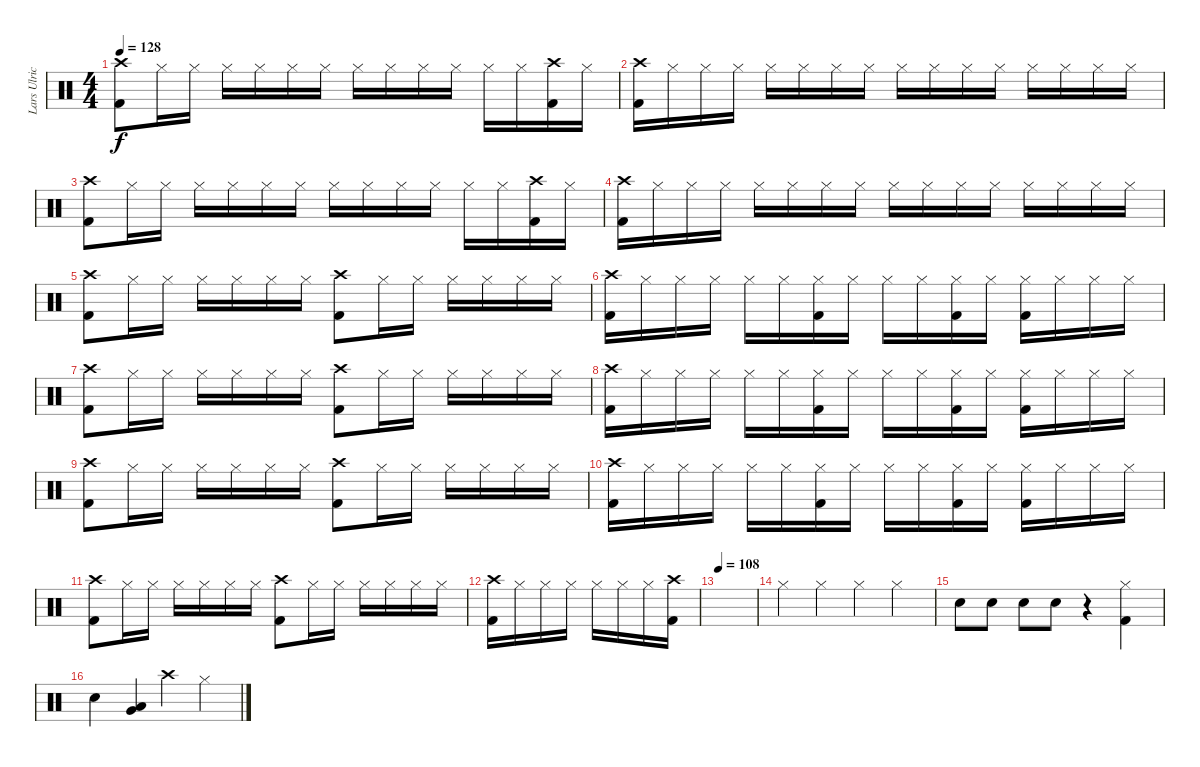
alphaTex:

\track ("Lars Ulrich" "Lars Ulric") {instrument percussion}
\staff {score}
\articulation defaults
\ts (4 4)
\tempo 128
\clef neutral
\ks c
("Crash high (hit)" "Kick (hit) 2").8{dy f} "Hi-Hat (closed)".16 "Hi-Hat (closed)".16 "Hi-Hat (closed)".16 "Hi-Hat (closed)".16 "Hi-Hat (closed)".16 "Hi-Hat (closed)".16 "Hi-Hat (closed)".16 "Hi-Hat (closed)".16 "Hi-Hat (closed)".16 "Hi-Hat (closed)".16 "Hi-Hat (closed)".16 "Hi-Hat (closed)".16 ("Crash high (hit)" "Kick (hit) 2").16 "Hi-Hat (closed)".16 |
("Crash high (hit)" "Kick (hit) 2").16 "Hi-Hat (closed)".16 "Hi-Hat (closed)".16 "Hi-Hat (closed)".16 "Hi-Hat (closed)".16 "Hi-Hat (closed)".16 "Hi-Hat (closed)".16 "Hi-Hat (closed)".16 "Hi-Hat (closed)".16 "Hi-Hat (closed)".16 "Hi-Hat (closed)".16 "Hi-Hat (closed)".16 "Hi-Hat (closed)".16 "Hi-Hat (closed)".16 "Hi-Hat (closed)".16 "Hi-Hat (closed)".16 |
("Crash high (hit)" "Kick (hit) 2").8 "Hi-Hat (closed)".16 "Hi-Hat (closed)".16 "Hi-Hat (closed)".16 "Hi-Hat (closed)".16 "Hi-Hat (closed)".16 "Hi-Hat (closed)".16 "Hi-Hat (closed)".16 "Hi-Hat (closed)".16 "Hi-Hat (closed)".16 "Hi-Hat (closed)".16 "Hi-Hat (closed)".16 "Hi-Hat (closed)".16 ("Crash high (hit)" "Kick (hit) 2").16 "Hi-Hat (closed)".16 |
("Crash high (hit)" "Kick (hit) 2").16 "Hi-Hat (closed)".16 "Hi-Hat (closed)".16 "Hi-Hat (closed)".16 "Hi-Hat (closed)".16 "Hi-Hat (closed)".16 "Hi-Hat (closed)".16 "Hi-Hat (closed)".16 "Hi-Hat (closed)".16 "Hi-Hat (closed)".16 "Hi-Hat (closed)".16 "Hi-Hat (closed)".16 "Hi-Hat (closed)".16 "Hi-Hat (closed)".16 "Hi-Hat (closed)".16 "Hi-Hat (closed)".16 |
("Crash high (hit)" "Kick (hit) 2").8 "Hi-Hat (closed)".16 "Hi-Hat (closed)".16 "Hi-Hat (closed)".16 "Hi-Hat (closed)".16 "Hi-Hat (closed)".16 "Hi-Hat (closed)".16 ("Crash high (hit)" "Kick (hit) 2").8 "Hi-Hat (closed)".16 "Hi-Hat (closed)".16 "Hi-Hat (closed)".16 "Hi-Hat (closed)".16 "Hi-Hat (closed)".16 "Hi-Hat (closed)".16 |
("Crash high (hit)" "Kick (hit) 2").16 "Hi-Hat (closed)".16 "Hi-Hat (closed)".16 "Hi-Hat (closed)".16 "Hi-Hat (closed)".16 "Hi-Hat (closed)".16 ("Hi-Hat (closed)" "Kick (hit) 2").16 "Hi-Hat (closed)".16 "Hi-Hat (closed)".16 "Hi-Hat (closed)".16 ("Hi-Hat (closed)" "Kick (hit) 2").16 "Hi-Hat (closed)".16 ("Hi-Hat (closed)" "Kick (hit) 2").16 "Hi-Hat (closed)".16 "Hi-Hat (closed)".16 "Hi-Hat (closed)".16 |
("Crash high (hit)" "Kick (hit) 2").8 "Hi-Hat (closed)".16 "Hi-Hat (closed)".16 "Hi-Hat (closed)".16 "Hi-Hat (closed)".16 "Hi-Hat (closed)".16 "Hi-Hat (closed)".16 ("Crash high (hit)" "Kick (hit) 2").8 "Hi-Hat (closed)".16 "Hi-Hat (closed)".16 "Hi-Hat (closed)".16 "Hi-Hat (closed)".16 "Hi-Hat (closed)".16 "Hi-Hat (closed)".16 |
("Crash high (hit)" "Kick (hit) 2").16 "Hi-Hat (closed)".16 "Hi-Hat (closed)".16 "Hi-Hat (closed)".16 "Hi-Hat (closed)".16 "Hi-Hat (closed)".16 ("Hi-Hat (closed)" "Kick (hit) 2").16 "Hi-Hat (closed)".16 "Hi-Hat (closed)".16 "Hi-Hat (closed)".16 ("Hi-Hat (closed)" "Kick (hit) 2").16 "Hi-Hat (closed)".16 ("Hi-Hat (closed)" "Kick (hit) 2").16 "Hi-Hat (closed)".16 "Hi-Hat (closed)".16 "Hi-Hat (closed)".16 |
("Crash high (hit)" "Kick (hit) 2").8 "Hi-Hat (closed)".16 "Hi-Hat (closed)".16 "Hi-Hat (closed)".16 "Hi-Hat (closed)".16 "Hi-Hat (closed)".16 "Hi-Hat (closed)".16 ("Crash high (hit)" "Kick (hit) 2").8 "Hi-Hat (closed)".16 "Hi-Hat (closed)".16 "Hi-Hat (closed)".16 "Hi-Hat (closed)".16 "Hi-Hat (closed)".16 "Hi-Hat (closed)".16 |
("Crash high (hit)" "Kick (hit) 2").16 "Hi-Hat (closed)".16 "Hi-Hat (closed)".16 "Hi-Hat (closed)".16 "Hi-Hat (closed)".16 "Hi-Hat (closed)".16 ("Hi-Hat (closed)" "Kick (hit) 2").16 "Hi-Hat (closed)".16 "Hi-Hat (closed)".16 "Hi-Hat (closed)".16 ("Hi-Hat (closed)" "Kick (hit) 2").16 "Hi-Hat (closed)".16 ("Hi-Hat (closed)" "Kick (hit) 2").16 "Hi-Hat (closed)".16 "Hi-Hat (closed)".16 "Hi-Hat (closed)".16 |
("Crash high (hit)" "Kick (hit) 2").8 "Hi-Hat (closed)".16 "Hi-Hat (closed)".16 "Hi-Hat (closed)".16 "Hi-Hat (closed)".16 "Hi-Hat (closed)".16 "Hi-Hat (closed)".16 ("Crash high (hit)" "Kick (hit) 2").8 "Hi-Hat (closed)".16 "Hi-Hat (closed)".16 "Hi-Hat (closed)".16 "Hi-Hat (closed)".16 "Hi-Hat (closed)".16 "Hi-Hat (closed)".16 |
("Crash high (hit)" "Kick (hit) 2").16 "Hi-Hat (closed)".16 "Hi-Hat (closed)".16 "Hi-Hat (closed)".16 "Hi-Hat (closed)".16 "Hi-Hat (closed)".16 "Hi-Hat (closed)".16 ("Crash high (hit)" "Kick (hit) 2").16 |
\tempo 108
|
"Hi-Hat (closed)".4 "Hi-Hat (closed)".4 "Hi-Hat (closed)".4 "Hi-Hat (closed)".4 |
"Electric Snare (hit)".8 "Electric Snare (hit)".8 "Electric Snare (hit)".8 "Electric Snare (hit)".8 r.4 ("Hi-Hat (closed)" "Kick (hit) 2").4 |
"Electric Snare (hit)".4 ("Low Floor Tom (hit)" "Very Low Tom (hit)").4 "Crash high (hit)".4 "Hi-Hat (closed)".4
